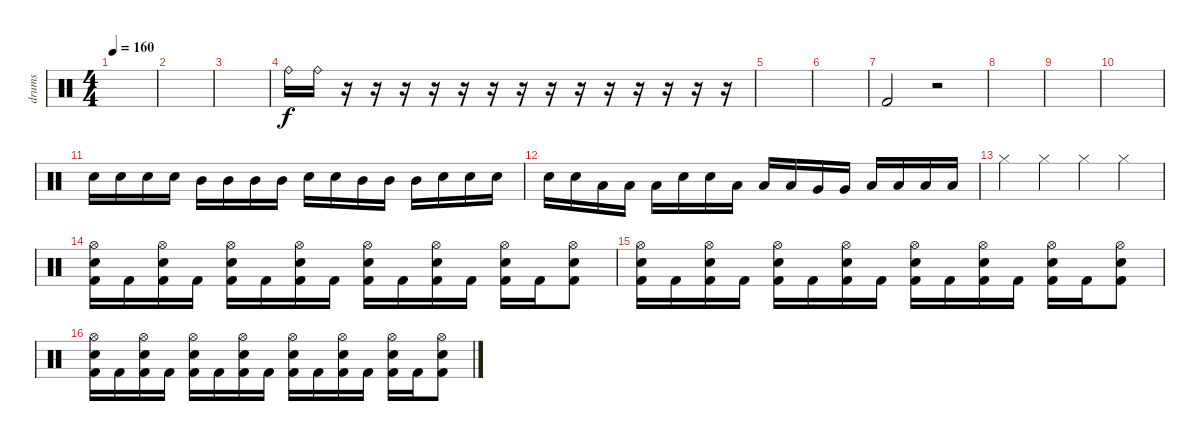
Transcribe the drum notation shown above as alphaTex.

\track ("drums" "drums") {instrument percussion}
\staff {score}
\articulation defaults
\ts (4 4)
\tempo 160
\clef neutral
\ks c
|
|
|
"Ride (bell)".16 "Ride (bell)".16 r.16 r.16 r.16 r.16 r.16 r.16 r.16 r.16 r.16 r.16 r.16 r.16 r.16 r.16 |
|
|
"Kick (hit) 2".2 r.2 |
|
|
|
"Electric Snare (hit)".16 "Electric Snare (hit)".16 "Electric Snare (hit)".16 "Electric Snare (hit)".16 "Mid Tom (hit)".16 "Mid Tom (hit)".16 "Mid Tom (hit)".16 "Mid Tom (hit)".16 "Electric Snare (hit)".16 "Electric Snare (hit)".16 "Mid Tom (hit)".16 "Mid Tom (hit)".16 "Mid Tom (hit)".16 "Electric Snare (hit)".16 "Electric Snare (hit)".16 "Electric Snare (hit)".16 |
"Electric Snare (hit)".16 "Electric Snare (hit)".16 "Low Tom (hit)".16 "Low Tom (hit)".16 "Low Tom (hit)".16 "Electric Snare (hit)".16 "Electric Snare (hit)".16 "Low Tom (hit)".16 "Low Tom (hit)".16 "Low Tom (hit)".16 "Very Low Tom (hit)".16 "Very Low Tom (hit)".16 "Low Floor Tom (hit)".16 "Low Floor Tom (hit)".16 "Low Floor Tom (hit)".16 "Low Floor Tom (hit)".16 |
"Hi-Hat (closed)".4 "Hi-Hat (closed)".4 "Hi-Hat (closed)".4 "Hi-Hat (closed)".4 |
("Hi-Hat (open)" "Electric Snare (hit)" "Kick (hit) 2").16 "Kick (hit) 2".16 ("Hi-Hat (open)" "Electric Snare (hit)" "Kick (hit) 2").16 "Kick (hit) 2".16 ("Hi-Hat (open)" "Electric Snare (hit)" "Kick (hit) 2").16 "Kick (hit) 2".16 ("Hi-Hat (open)" "Electric Snare (hit)" "Kick (hit) 2").16 "Kick (hit) 2".16 ("Hi-Hat (open)" "Electric Snare (hit)" "Kick (hit) 2").16 "Kick (hit) 2".16 ("Hi-Hat (open)" "Electric Snare (hit)" "Kick (hit) 2").16 "Kick (hit) 2".16 ("Hi-Hat (open)" "Electric Snare (hit)" "Kick (hit) 2").16 "Kick (hit) 2".16 ("Hi-Hat (open)" "Electric Snare (hit)" "Kick (hit) 2").8 |
("Hi-Hat (open)" "Electric Snare (hit)" "Kick (hit) 2").16 "Kick (hit) 2".16 ("Hi-Hat (open)" "Electric Snare (hit)" "Kick (hit) 2").16 "Kick (hit) 2".16 ("Hi-Hat (open)" "Electric Snare (hit)" "Kick (hit) 2").16 "Kick (hit) 2".16 ("Hi-Hat (open)" "Electric Snare (hit)" "Kick (hit) 2").16 "Kick (hit) 2".16 ("Hi-Hat (open)" "Electric Snare (hit)" "Kick (hit) 2").16 "Kick (hit) 2".16 ("Hi-Hat (open)" "Electric Snare (hit)" "Kick (hit) 2").16 "Kick (hit) 2".16 ("Hi-Hat (open)" "Electric Snare (hit)" "Kick (hit) 2").16 "Kick (hit) 2".16 ("Hi-Hat (open)" "Electric Snare (hit)" "Kick (hit) 2").8 |
("Hi-Hat (open)" "Electric Snare (hit)" "Kick (hit) 2").16 "Kick (hit) 2".16 ("Hi-Hat (open)" "Electric Snare (hit)" "Kick (hit) 2").16 "Kick (hit) 2".16 ("Hi-Hat (open)" "Electric Snare (hit)" "Kick (hit) 2").16 "Kick (hit) 2".16 ("Hi-Hat (open)" "Electric Snare (hit)" "Kick (hit) 2").16 "Kick (hit) 2".16 ("Hi-Hat (open)" "Electric Snare (hit)" "Kick (hit) 2").16 "Kick (hit) 2".16 ("Hi-Hat (open)" "Electric Snare (hit)" "Kick (hit) 2").16 "Kick (hit) 2".16 ("Hi-Hat (open)" "Electric Snare (hit)" "Kick (hit) 2").16 "Kick (hit) 2".16 ("Hi-Hat (open)" "Electric Snare (hit)" "Kick (hit) 2").8
